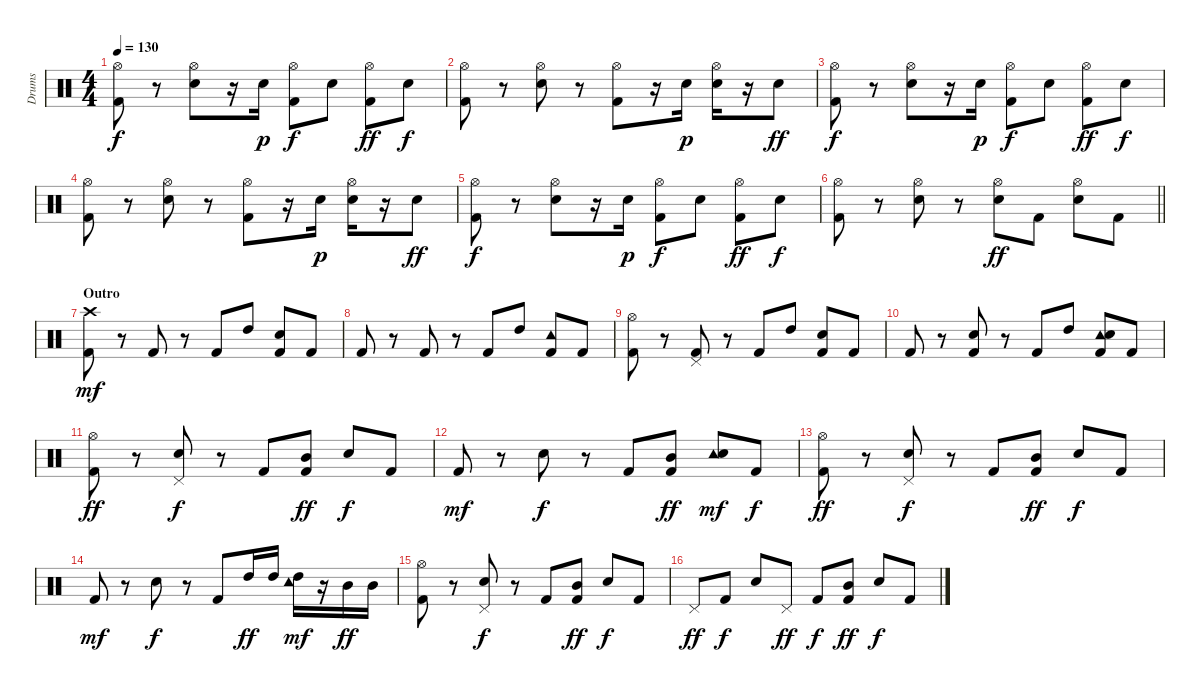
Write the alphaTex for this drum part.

\track ("Drums" "Drums") {instrument percussion}
\staff {score}
\articulation defaults
\ts (4 4)
\tempo 130
\clef neutral
\ks c
("Hi-Hat (open)" "Kick (hit) 2").8{dy f} r.8 ("Hi-Hat (open)" "Snare (hit) 2").8 r.16 "Snare (hit) 2".16{dy p} ("Hi-Hat (open)" "Kick (hit) 2").8{dy f} "Snare (hit) 2".8 ("Hi-Hat (open)" "Kick (hit) 2").8{dy ff} "Snare (hit) 2".8{dy f} |
("Hi-Hat (open)" "Kick (hit) 2").8 r.8 ("Hi-Hat (open)" "Snare (hit) 2").8 r.8 ("Hi-Hat (open)" "Kick (hit) 2").8 r.16 "Snare (hit) 2".16{dy p} ("Hi-Hat (open)" "Snare (hit) 2").16 r.16 "Snare (hit) 2".8{dy ff} |
("Hi-Hat (open)" "Kick (hit) 2").8{dy f} r.8 ("Hi-Hat (open)" "Snare (hit) 2").8 r.16 "Snare (hit) 2".16{dy p} ("Hi-Hat (open)" "Kick (hit) 2").8{dy f} "Snare (hit) 2".8 ("Hi-Hat (open)" "Kick (hit) 2").8{dy ff} "Snare (hit) 2".8{dy f} |
("Hi-Hat (open)" "Kick (hit) 2").8 r.8 ("Hi-Hat (open)" "Snare (hit) 2").8 r.8 ("Hi-Hat (open)" "Kick (hit) 2").8 r.16 "Snare (hit) 2".16{dy p} ("Hi-Hat (open)" "Snare (hit) 2").16 r.16 "Snare (hit) 2".8{dy ff} |
("Hi-Hat (open)" "Kick (hit) 2").8{dy f} r.8 ("Hi-Hat (open)" "Snare (hit) 2").8 r.16 "Snare (hit) 2".16{dy p} ("Hi-Hat (open)" "Kick (hit) 2").8{dy f} "Snare (hit) 2".8 ("Hi-Hat (open)" "Kick (hit) 2").8{dy ff} "Snare (hit) 2".8{dy f} |
\barLineRight lightlight
("Hi-Hat (open)" "Kick (hit) 2").8 r.8 ("Hi-Hat (open)" "Snare (hit) 2").8 r.8 ("Hi-Hat (open)" "Snare (hit) 2").8{dy ff} "Kick (hit) 2".8 ("Hi-Hat (open)" "Snare (hit) 2").8 "Kick (hit) 2".8 |
\section ("" "Outro")
("Crash high (hit)" "Kick (hit) 2").8{dy mf} r.8 "Kick (hit) 2".8 r.8 "Kick (hit) 2".8 "High Tom (hit)".8 ("Snare (hit) 2" "Kick (hit) 2").8 "Kick (hit) 2".8 |
"Kick (hit) 2".8 r.8 "Kick (hit) 2".8 r.8 "Kick (hit) 2".8 "High Tom (hit)".8 ("Tambourine (hit)" "Kick (hit) 2").8 "Kick (hit) 2".8 |
("Hi-Hat (open)" "Kick (hit) 2").8 r.8 ("Pedal Hi-Hat (hit)" "Kick (hit) 2").8 r.8 "Kick (hit) 2".8 "High Tom (hit)".8 ("Snare (hit) 2" "Kick (hit) 2").8 "Kick (hit) 2".8 |
"Kick (hit) 2".8 r.8 ("Snare (hit) 2" "Kick (hit) 2").8 r.8 "Kick (hit) 2".8 "High Tom (hit)".8 ("Tambourine (hit)" "Snare (hit) 2" "Kick (hit) 2").8 "Kick (hit) 2".8 |
("Hi-Hat (open)" "Kick (hit) 2").8{dy ff} r.8 ("Pedal Hi-Hat (hit)" "Snare (hit) 2").8{dy f} r.8 "Kick (hit) 2".8 ("Mid Tom (hit)" "Kick (hit) 2").8{dy ff} "Snare (hit) 2".8{dy f} "Kick (hit) 2".8 |
"Kick (hit) 2".8{dy mf} r.8 "Snare (hit) 2".8{dy f} r.8 "Kick (hit) 2".8 ("Mid Tom (hit)" "Kick (hit) 2").8{dy ff} ("Tambourine (hit)" "Snare (hit) 2").8{dy mf} "Kick (hit) 2".8{dy f} |
("Hi-Hat (open)" "Kick (hit) 2").8{dy ff} r.8 ("Pedal Hi-Hat (hit)" "Snare (hit) 2").8{dy f} r.8 "Kick (hit) 2".8 ("Mid Tom (hit)" "Kick (hit) 2").8{dy ff} "Snare (hit) 2".8{dy f} "Kick (hit) 2".8 |
"Kick (hit) 2".8{dy mf} r.8 "Snare (hit) 2".8{dy f} r.8 "Kick (hit) 2".8 "High Tom (hit)".16{dy ff} "High Tom (hit)".16 ("High Tom (hit)" "Tambourine (hit)").16{dy mf} r.16 "Mid Tom (hit)".16{dy ff} "Mid Tom (hit)".16 |
("Hi-Hat (open)" "Kick (hit) 2").8 r.8 ("Pedal Hi-Hat (hit)" "Snare (hit) 2").8{dy f} r.8 "Kick (hit) 2".8 ("Mid Tom (hit)" "Kick (hit) 2").8{dy ff} "Snare (hit) 2".8{dy f} "Kick (hit) 2".8 |
"Pedal Hi-Hat (hit)".8{dy ff} "Kick (hit) 2".8{dy f} "Snare (hit) 2".8 "Pedal Hi-Hat (hit)".8{dy ff} "Kick (hit) 2".8{dy f} ("Mid Tom (hit)" "Kick (hit) 2").8{dy ff} "Snare (hit) 2".8{dy f} "Kick (hit) 2".8
